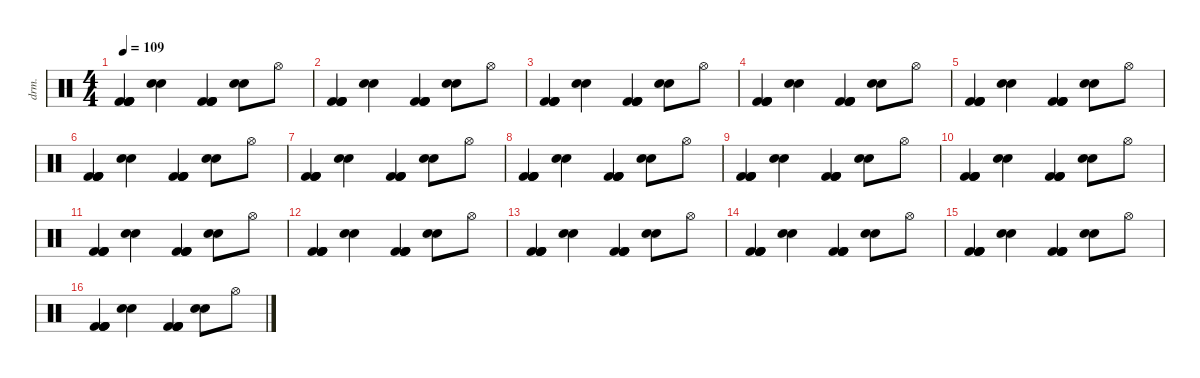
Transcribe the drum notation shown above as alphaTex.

\defaultSystemsLayout 4
\hideDynamics
\bracketExtendMode nobrackets
\otherSystemsTrackNameOrientation horizontal
\track ("Drums" "drm.") {instrument percussion}
\staff {score}
\articulation defaults
\ts (4 4)
\tempo 109
\clef neutral
\ks c
("Kick (hit) 2" "Kick (hit) 2" "Kick (hit) 2" "Kick (hit) 2").4{dy fff} ("Snare (hit) 2" "Snare (hit) 2").4{dy f} ("Kick (hit) 2" "Kick (hit) 2" "Kick (hit) 2" "Kick (hit) 2").4{dy fff} ("Snare (hit) 2" "Snare (hit) 2").8{dy f} "Hi-Hat (open)".8 |
("Kick (hit) 2" "Kick (hit) 2" "Kick (hit) 2" "Kick (hit) 2").4{dy fff} ("Snare (hit) 2" "Snare (hit) 2").4{dy f} ("Kick (hit) 2" "Kick (hit) 2" "Kick (hit) 2" "Kick (hit) 2").4{dy fff} ("Snare (hit) 2" "Snare (hit) 2").8{dy f} "Hi-Hat (open)".8 |
("Kick (hit) 2" "Kick (hit) 2" "Kick (hit) 2" "Kick (hit) 2").4{dy fff} ("Snare (hit) 2" "Snare (hit) 2").4{dy f} ("Kick (hit) 2" "Kick (hit) 2" "Kick (hit) 2" "Kick (hit) 2").4{dy fff} ("Snare (hit) 2" "Snare (hit) 2").8{dy f} "Hi-Hat (open)".8 |
("Kick (hit) 2" "Kick (hit) 2" "Kick (hit) 2" "Kick (hit) 2").4{dy fff} ("Snare (hit) 2" "Snare (hit) 2").4{dy f} ("Kick (hit) 2" "Kick (hit) 2" "Kick (hit) 2" "Kick (hit) 2").4{dy fff} ("Snare (hit) 2" "Snare (hit) 2").8{dy f} "Hi-Hat (open)".8 |
("Kick (hit) 2" "Kick (hit) 2" "Kick (hit) 2" "Kick (hit) 2").4{dy fff} ("Snare (hit) 2" "Snare (hit) 2").4{dy f} ("Kick (hit) 2" "Kick (hit) 2" "Kick (hit) 2" "Kick (hit) 2").4{dy fff} ("Snare (hit) 2" "Snare (hit) 2").8{dy f} "Hi-Hat (open)".8 |
("Kick (hit) 2" "Kick (hit) 2" "Kick (hit) 2" "Kick (hit) 2").4{dy fff} ("Snare (hit) 2" "Snare (hit) 2").4{dy f} ("Kick (hit) 2" "Kick (hit) 2" "Kick (hit) 2" "Kick (hit) 2").4{dy fff} ("Snare (hit) 2" "Snare (hit) 2").8{dy f} "Hi-Hat (open)".8 |
("Kick (hit) 2" "Kick (hit) 2" "Kick (hit) 2" "Kick (hit) 2").4{dy fff} ("Snare (hit) 2" "Snare (hit) 2").4{dy f} ("Kick (hit) 2" "Kick (hit) 2" "Kick (hit) 2" "Kick (hit) 2").4{dy fff} ("Snare (hit) 2" "Snare (hit) 2").8{dy f} "Hi-Hat (open)".8 |
("Kick (hit) 2" "Kick (hit) 2" "Kick (hit) 2" "Kick (hit) 2").4{dy fff} ("Snare (hit) 2" "Snare (hit) 2").4{dy f} ("Kick (hit) 2" "Kick (hit) 2" "Kick (hit) 2" "Kick (hit) 2").4{dy fff} ("Snare (hit) 2" "Snare (hit) 2").8{dy f} "Hi-Hat (open)".8 |
("Kick (hit) 2" "Kick (hit) 2" "Kick (hit) 2" "Kick (hit) 2").4{dy fff} ("Snare (hit) 2" "Snare (hit) 2").4{dy f} ("Kick (hit) 2" "Kick (hit) 2" "Kick (hit) 2" "Kick (hit) 2").4{dy fff} ("Snare (hit) 2" "Snare (hit) 2").8{dy f} "Hi-Hat (open)".8 |
("Kick (hit) 2" "Kick (hit) 2" "Kick (hit) 2" "Kick (hit) 2").4{dy fff} ("Snare (hit) 2" "Snare (hit) 2").4{dy f} ("Kick (hit) 2" "Kick (hit) 2" "Kick (hit) 2" "Kick (hit) 2").4{dy fff} ("Snare (hit) 2" "Snare (hit) 2").8{dy f} "Hi-Hat (open)".8 |
("Kick (hit) 2" "Kick (hit) 2" "Kick (hit) 2" "Kick (hit) 2").4{dy fff} ("Snare (hit) 2" "Snare (hit) 2").4{dy f} ("Kick (hit) 2" "Kick (hit) 2" "Kick (hit) 2" "Kick (hit) 2").4{dy fff} ("Snare (hit) 2" "Snare (hit) 2").8{dy f} "Hi-Hat (open)".8 |
("Kick (hit) 2" "Kick (hit) 2" "Kick (hit) 2" "Kick (hit) 2").4{dy fff} ("Snare (hit) 2" "Snare (hit) 2").4{dy f} ("Kick (hit) 2" "Kick (hit) 2" "Kick (hit) 2" "Kick (hit) 2").4{dy fff} ("Snare (hit) 2" "Snare (hit) 2").8{dy f} "Hi-Hat (open)".8 |
("Kick (hit) 2" "Kick (hit) 2" "Kick (hit) 2" "Kick (hit) 2").4{dy fff} ("Snare (hit) 2" "Snare (hit) 2").4{dy f} ("Kick (hit) 2" "Kick (hit) 2" "Kick (hit) 2" "Kick (hit) 2").4{dy fff} ("Snare (hit) 2" "Snare (hit) 2").8{dy f} "Hi-Hat (open)".8 |
("Kick (hit) 2" "Kick (hit) 2" "Kick (hit) 2" "Kick (hit) 2").4{dy fff} ("Snare (hit) 2" "Snare (hit) 2").4{dy f} ("Kick (hit) 2" "Kick (hit) 2" "Kick (hit) 2" "Kick (hit) 2").4{dy fff} ("Snare (hit) 2" "Snare (hit) 2").8{dy f} "Hi-Hat (open)".8 |
("Kick (hit) 2" "Kick (hit) 2" "Kick (hit) 2" "Kick (hit) 2").4{dy fff} ("Snare (hit) 2" "Snare (hit) 2").4{dy f} ("Kick (hit) 2" "Kick (hit) 2" "Kick (hit) 2" "Kick (hit) 2").4{dy fff} ("Snare (hit) 2" "Snare (hit) 2").8{dy f} "Hi-Hat (open)".8 |
("Kick (hit) 2" "Kick (hit) 2" "Kick (hit) 2" "Kick (hit) 2").4{dy fff} ("Snare (hit) 2" "Snare (hit) 2").4{dy f} ("Kick (hit) 2" "Kick (hit) 2" "Kick (hit) 2" "Kick (hit) 2").4{dy fff} ("Snare (hit) 2" "Snare (hit) 2").8{dy f} "Hi-Hat (open)".8
